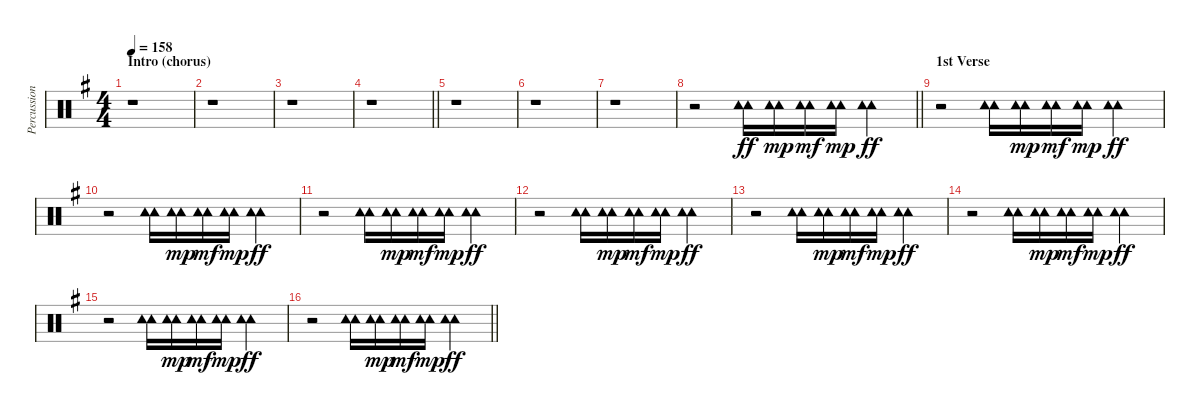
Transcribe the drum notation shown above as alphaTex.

\track ("Percussion" "Percussion") {instrument percussion}
\staff {score}
\articulation defaults
\ts (4 4)
\section ("" "Intro (chorus)")
\tempo 158
\clef neutral
\ks g
r.1{dy ff} |
r.1 |
r.1 |
\barLineRight lightlight
r.1 |
\section ("" "")
r.1 |
r.1 |
r.1 |
\barLineRight lightlight
r.2 ("Tambourine (hit)" "Tambourine (hit)").16 ("Tambourine (hit)" "Tambourine (hit)").16{dy mp} ("Tambourine (hit)" "Tambourine (hit)").16{dy mf} ("Tambourine (hit)" "Tambourine (hit)").16{dy mp} ("Tambourine (hit)" "Tambourine (hit)").4{dy ff} |
\section ("" "1st Verse")
r.2 ("Tambourine (hit)" "Tambourine (hit)").16 ("Tambourine (hit)" "Tambourine (hit)").16{dy mp} ("Tambourine (hit)" "Tambourine (hit)").16{dy mf} ("Tambourine (hit)" "Tambourine (hit)").16{dy mp} ("Tambourine (hit)" "Tambourine (hit)").4{dy ff} |
r.2 ("Tambourine (hit)" "Tambourine (hit)").16 ("Tambourine (hit)" "Tambourine (hit)").16{dy mp} ("Tambourine (hit)" "Tambourine (hit)").16{dy mf} ("Tambourine (hit)" "Tambourine (hit)").16{dy mp} ("Tambourine (hit)" "Tambourine (hit)").4{dy ff} |
r.2 ("Tambourine (hit)" "Tambourine (hit)").16 ("Tambourine (hit)" "Tambourine (hit)").16{dy mp} ("Tambourine (hit)" "Tambourine (hit)").16{dy mf} ("Tambourine (hit)" "Tambourine (hit)").16{dy mp} ("Tambourine (hit)" "Tambourine (hit)").4{dy ff} |
r.2 ("Tambourine (hit)" "Tambourine (hit)").16 ("Tambourine (hit)" "Tambourine (hit)").16{dy mp} ("Tambourine (hit)" "Tambourine (hit)").16{dy mf} ("Tambourine (hit)" "Tambourine (hit)").16{dy mp} ("Tambourine (hit)" "Tambourine (hit)").4{dy ff} |
r.2 ("Tambourine (hit)" "Tambourine (hit)").16 ("Tambourine (hit)" "Tambourine (hit)").16{dy mp} ("Tambourine (hit)" "Tambourine (hit)").16{dy mf} ("Tambourine (hit)" "Tambourine (hit)").16{dy mp} ("Tambourine (hit)" "Tambourine (hit)").4{dy ff} |
r.2 ("Tambourine (hit)" "Tambourine (hit)").16 ("Tambourine (hit)" "Tambourine (hit)").16{dy mp} ("Tambourine (hit)" "Tambourine (hit)").16{dy mf} ("Tambourine (hit)" "Tambourine (hit)").16{dy mp} ("Tambourine (hit)" "Tambourine (hit)").4{dy ff} |
r.2 ("Tambourine (hit)" "Tambourine (hit)").16 ("Tambourine (hit)" "Tambourine (hit)").16{dy mp} ("Tambourine (hit)" "Tambourine (hit)").16{dy mf} ("Tambourine (hit)" "Tambourine (hit)").16{dy mp} ("Tambourine (hit)" "Tambourine (hit)").4{dy ff} |
\barLineRight lightlight
r.2 ("Tambourine (hit)" "Tambourine (hit)").16 ("Tambourine (hit)" "Tambourine (hit)").16{dy mp} ("Tambourine (hit)" "Tambourine (hit)").16{dy mf} ("Tambourine (hit)" "Tambourine (hit)").16{dy mp} ("Tambourine (hit)" "Tambourine (hit)").4{dy ff}
